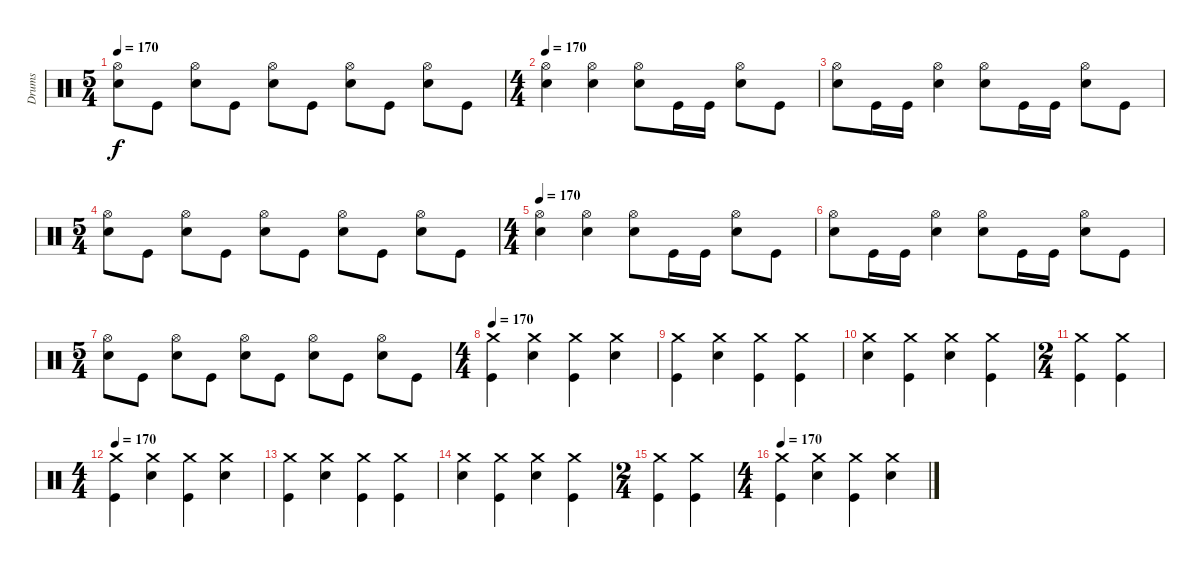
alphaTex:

\track ("Drums" "Drums") {instrument percussion}
\staff {score}
\articulation defaults
\ts (5 4)
\tempo 170
\clef neutral
\ks c
("Snare (hit) 2" "Hi-Hat (open)").8{dy f} "Kick (hit)".8 ("Snare (hit) 2" "Hi-Hat (open)").8 "Kick (hit)".8 ("Snare (hit) 2" "Hi-Hat (open)").8 "Kick (hit)".8 ("Snare (hit) 2" "Hi-Hat (open)").8 "Kick (hit)".8 ("Snare (hit) 2" "Hi-Hat (open)").8 "Kick (hit)".8 |
\ts (4 4)
\tempo 170
("Snare (hit) 2" "Hi-Hat (open)").4 ("Snare (hit) 2" "Hi-Hat (open)").4 ("Snare (hit) 2" "Hi-Hat (open)").8 "Kick (hit)".16 "Kick (hit)".16 ("Snare (hit) 2" "Hi-Hat (open)").8 "Kick (hit)".8 |
("Snare (hit) 2" "Hi-Hat (open)").8 "Kick (hit)".16 "Kick (hit)".16 ("Snare (hit) 2" "Hi-Hat (open)").4 ("Snare (hit) 2" "Hi-Hat (open)").8 "Kick (hit)".16 "Kick (hit)".16 ("Snare (hit) 2" "Hi-Hat (open)").8 "Kick (hit)".8 |
\ts (5 4)
("Snare (hit) 2" "Hi-Hat (open)").8 "Kick (hit)".8 ("Snare (hit) 2" "Hi-Hat (open)").8 "Kick (hit)".8 ("Snare (hit) 2" "Hi-Hat (open)").8 "Kick (hit)".8 ("Snare (hit) 2" "Hi-Hat (open)").8 "Kick (hit)".8 ("Snare (hit) 2" "Hi-Hat (open)").8 "Kick (hit)".8 |
\ts (4 4)
\tempo 170
("Snare (hit) 2" "Hi-Hat (open)").4 ("Snare (hit) 2" "Hi-Hat (open)").4 ("Snare (hit) 2" "Hi-Hat (open)").8 "Kick (hit)".16 "Kick (hit)".16 ("Snare (hit) 2" "Hi-Hat (open)").8 "Kick (hit)".8 |
("Snare (hit) 2" "Hi-Hat (open)").8 "Kick (hit)".16 "Kick (hit)".16 ("Snare (hit) 2" "Hi-Hat (open)").4 ("Snare (hit) 2" "Hi-Hat (open)").8 "Kick (hit)".16 "Kick (hit)".16 ("Snare (hit) 2" "Hi-Hat (open)").8 "Kick (hit)".8 |
\ts (5 4)
("Snare (hit) 2" "Hi-Hat (open)").8 "Kick (hit)".8 ("Snare (hit) 2" "Hi-Hat (open)").8 "Kick (hit)".8 ("Snare (hit) 2" "Hi-Hat (open)").8 "Kick (hit)".8 ("Snare (hit) 2" "Hi-Hat (open)").8 "Kick (hit)".8 ("Snare (hit) 2" "Hi-Hat (open)").8 "Kick (hit)".8 |
\ts (4 4)
\tempo 170
("Kick (hit)" "Crash medium (hit)").4 ("Snare (hit) 2" "Crash medium (hit)").4 ("Kick (hit)" "Crash medium (hit)").4 ("Snare (hit) 2" "Crash medium (hit)").4 |
("Kick (hit)" "Crash medium (hit)").4 ("Snare (hit) 2" "Crash medium (hit)").4 ("Kick (hit)" "Crash medium (hit)").4 ("Kick (hit)" "Crash medium (hit)").4 |
("Snare (hit) 2" "Crash medium (hit)").4 ("Kick (hit)" "Crash medium (hit)").4 ("Snare (hit) 2" "Crash medium (hit)").4 ("Kick (hit)" "Crash medium (hit)").4 |
\ts (2 4)
("Kick (hit)" "Crash medium (hit)").4 ("Kick (hit)" "Crash medium (hit)").4 |
\ts (4 4)
\tempo 170
("Kick (hit)" "Crash medium (hit)").4 ("Snare (hit) 2" "Crash medium (hit)").4 ("Kick (hit)" "Crash medium (hit)").4 ("Snare (hit) 2" "Crash medium (hit)").4 |
("Kick (hit)" "Crash medium (hit)").4 ("Snare (hit) 2" "Crash medium (hit)").4 ("Kick (hit)" "Crash medium (hit)").4 ("Kick (hit)" "Crash medium (hit)").4 |
("Snare (hit) 2" "Crash medium (hit)").4 ("Kick (hit)" "Crash medium (hit)").4 ("Snare (hit) 2" "Crash medium (hit)").4 ("Kick (hit)" "Crash medium (hit)").4 |
\ts (2 4)
("Kick (hit)" "Crash medium (hit)").4 ("Kick (hit)" "Crash medium (hit)").4 |
\ts (4 4)
\tempo 170
("Kick (hit)" "Crash medium (hit)").4 ("Snare (hit) 2" "Crash medium (hit)").4 ("Kick (hit)" "Crash medium (hit)").4 ("Snare (hit) 2" "Crash medium (hit)").4
